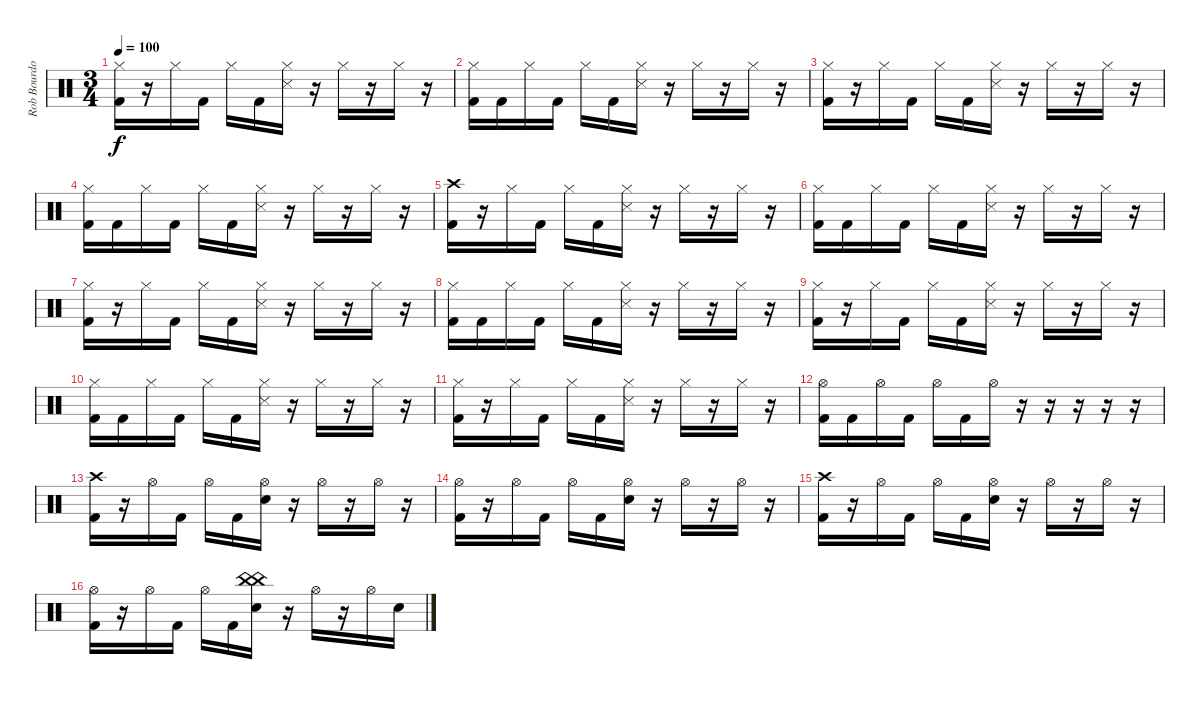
\track ("Rob Bourdon (Drums)" "Rob Bourdo") {instrument percussion}
\staff {score}
\articulation defaults
\ts (3 4)
\tempo 100
\clef neutral
\ks c
("Hi-Hat (closed)" "Kick (hit) 2").16{dy f} r.16 "Hi-Hat (closed)".16 "Kick (hit) 2".16 "Hi-Hat (closed)".16 "Kick (hit) 2".16 ("Hi-Hat (closed)" "Snare (side stick) 3").16 r.16 "Hi-Hat (closed)".16 r.16 "Hi-Hat (closed)".16 r.16 |
("Hi-Hat (closed)" "Kick (hit) 2").16 "Kick (hit) 2".16 "Hi-Hat (closed)".16 "Kick (hit) 2".16 "Hi-Hat (closed)".16 "Kick (hit) 2".16 ("Hi-Hat (closed)" "Snare (side stick) 3").16 r.16 "Hi-Hat (closed)".16 r.16 "Hi-Hat (closed)".16 r.16 |
("Hi-Hat (closed)" "Kick (hit) 2").16 r.16 "Hi-Hat (closed)".16 "Kick (hit) 2".16 "Hi-Hat (closed)".16 "Kick (hit) 2".16 ("Hi-Hat (closed)" "Snare (side stick) 3").16 r.16 "Hi-Hat (closed)".16 r.16 "Hi-Hat (closed)".16 r.16 |
("Hi-Hat (closed)" "Kick (hit) 2").16 "Kick (hit) 2".16 "Hi-Hat (closed)".16 "Kick (hit) 2".16 "Hi-Hat (closed)".16 "Kick (hit) 2".16 ("Hi-Hat (closed)" "Snare (side stick) 3").16 r.16 "Hi-Hat (closed)".16 r.16 "Hi-Hat (closed)".16 r.16 |
("Crash high (hit)" "Kick (hit) 2").16 r.16 "Hi-Hat (closed)".16 "Kick (hit) 2".16 "Hi-Hat (closed)".16 "Kick (hit) 2".16 ("Hi-Hat (closed)" "Snare (side stick) 3").16 r.16 "Hi-Hat (closed)".16 r.16 "Hi-Hat (closed)".16 r.16 |
("Hi-Hat (closed)" "Kick (hit) 2").16 "Kick (hit) 2".16 "Hi-Hat (closed)".16 "Kick (hit) 2".16 "Hi-Hat (closed)".16 "Kick (hit) 2".16 ("Hi-Hat (closed)" "Snare (side stick) 3").16 r.16 "Hi-Hat (closed)".16 r.16 "Hi-Hat (closed)".16 r.16 |
("Hi-Hat (closed)" "Kick (hit) 2").16 r.16 "Hi-Hat (closed)".16 "Kick (hit) 2".16 "Hi-Hat (closed)".16 "Kick (hit) 2".16 ("Hi-Hat (closed)" "Snare (side stick) 3").16 r.16 "Hi-Hat (closed)".16 r.16 "Hi-Hat (closed)".16 r.16 |
("Hi-Hat (closed)" "Kick (hit) 2").16 "Kick (hit) 2".16 "Hi-Hat (closed)".16 "Kick (hit) 2".16 "Hi-Hat (closed)".16 "Kick (hit) 2".16 ("Hi-Hat (closed)" "Snare (side stick) 3").16 r.16 "Hi-Hat (closed)".16 r.16 "Hi-Hat (closed)".16 r.16 |
("Hi-Hat (closed)" "Kick (hit) 2").16 r.16 "Hi-Hat (closed)".16 "Kick (hit) 2".16 "Hi-Hat (closed)".16 "Kick (hit) 2".16 ("Hi-Hat (closed)" "Snare (side stick) 3").16 r.16 "Hi-Hat (closed)".16 r.16 "Hi-Hat (closed)".16 r.16 |
("Hi-Hat (closed)" "Kick (hit) 2").16 "Kick (hit) 2".16 "Hi-Hat (closed)".16 "Kick (hit) 2".16 "Hi-Hat (closed)".16 "Kick (hit) 2".16 ("Hi-Hat (closed)" "Snare (side stick) 3").16 r.16 "Hi-Hat (closed)".16 r.16 "Hi-Hat (closed)".16 r.16 |
("Hi-Hat (closed)" "Kick (hit) 2").16 r.16 "Hi-Hat (closed)".16 "Kick (hit) 2".16 "Hi-Hat (closed)".16 "Kick (hit) 2".16 ("Hi-Hat (closed)" "Snare (side stick) 3").16 r.16 "Hi-Hat (closed)".16 r.16 "Hi-Hat (closed)".16 r.16 |
("Hi-Hat (open)" "Kick (hit) 2").16 "Kick (hit) 2".16 "Hi-Hat (open)".16 "Kick (hit) 2".16 "Hi-Hat (open)".16 "Kick (hit) 2".16 "Hi-Hat (open)".16 r.16 r.16 r.16 r.16 r.16 |
("Crash high (hit)" "Kick (hit) 2").16 r.16 "Hi-Hat (open)".16 "Kick (hit) 2".16 "Hi-Hat (open)".16 "Kick (hit) 2".16 ("Hi-Hat (open)" "Electric Snare (hit)").16 r.16 "Hi-Hat (open)".16 r.16 "Hi-Hat (open)".16 r.16 |
("Hi-Hat (open)" "Kick (hit) 2").16 r.16 "Hi-Hat (open)".16 "Kick (hit) 2".16 "Hi-Hat (open)".16 "Kick (hit) 2".16 ("Hi-Hat (open)" "Electric Snare (hit)").16 r.16 "Hi-Hat (open)".16 r.16 "Hi-Hat (open)".16 r.16 |
("Crash high (hit)" "Kick (hit) 2").16 r.16 "Hi-Hat (open)".16 "Kick (hit) 2".16 "Hi-Hat (open)".16 "Kick (hit) 2".16 ("Hi-Hat (open)" "Electric Snare (hit)").16 r.16 "Hi-Hat (open)".16 r.16 "Hi-Hat (open)".16 r.16 |
("Hi-Hat (open)" "Kick (hit) 2").16 r.16 "Hi-Hat (open)".16 "Kick (hit) 2".16 "Hi-Hat (open)".16 "Kick (hit) 2".16 ("China (hit)" "China (hit)" "Electric Snare (hit)").16 r.16 "Hi-Hat (open)".16 r.16 "Hi-Hat (open)".16 "Electric Snare (hit)".16
